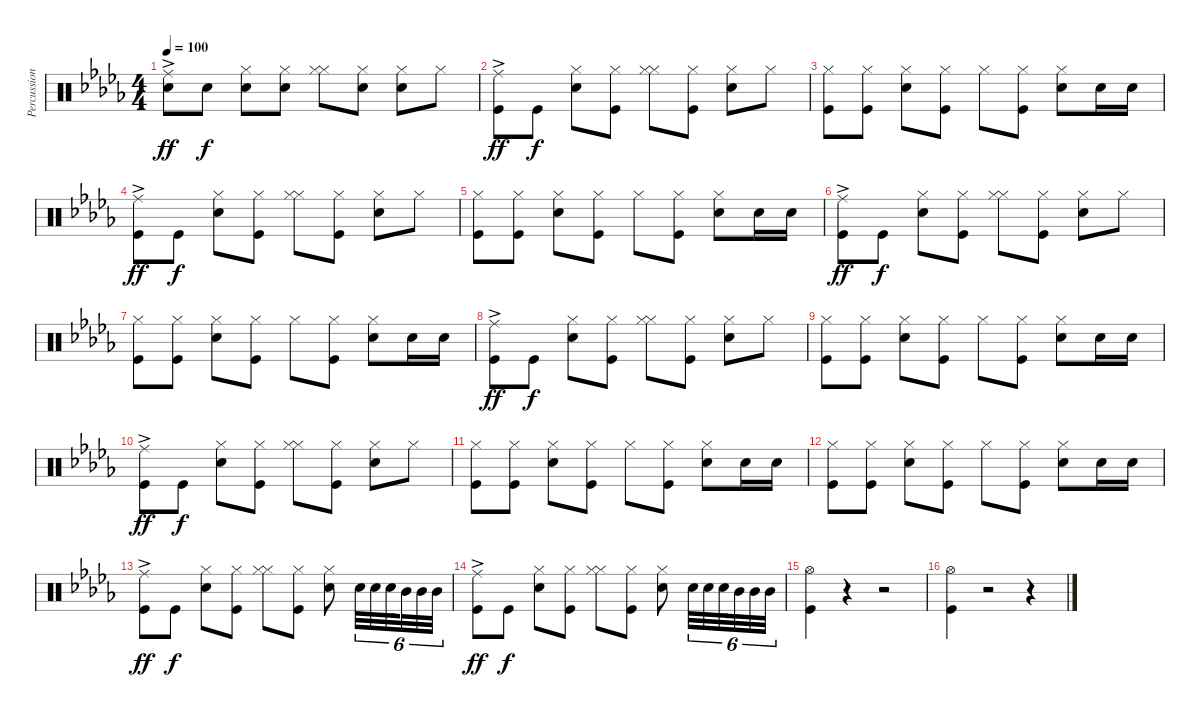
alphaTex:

\track ("Percussion( mike mamillin)" "Percussion") {instrument percussion}
\staff {score}
\articulation defaults
\ts (4 4)
\tempo 100
\clef neutral
\ks db
("Ride (middle)"{ac} "Electric Snare (hit)").8{dy ff} "Electric Snare (hit)".8{dy f} ("Hi-Hat (closed)" "Snare (hit) 2").8 ("Hi-Hat (closed)" "Electric Snare (hit)").8 ("Hi-Hat (closed)" "Hi-Hat (closed)").8 ("Hi-Hat (closed)" "Electric Snare (hit)").8 ("Hi-Hat (closed)" "Snare (hit) 2").8 "Hi-Hat (closed)".8 |
("Ride (middle)"{ac} "Kick (hit)").8{dy ff} "Kick (hit)".8{dy f} ("Hi-Hat (closed)" "Snare (hit) 2").8 ("Hi-Hat (closed)" "Kick (hit)").8 ("Hi-Hat (closed)" "Hi-Hat (closed)").8 ("Hi-Hat (closed)" "Kick (hit)").8 ("Hi-Hat (closed)" "Snare (hit) 2").8 "Hi-Hat (closed)".8 |
("Hi-Hat (closed)" "Kick (hit)").8 ("Hi-Hat (closed)" "Kick (hit)").8 ("Hi-Hat (closed)" "Snare (hit) 2").8 ("Hi-Hat (closed)" "Kick (hit)").8 "Hi-Hat (closed)".8 ("Hi-Hat (closed)" "Kick (hit)").8 ("Hi-Hat (closed)" "Snare (hit) 2").8 "Snare (hit) 2".16 "Snare (hit) 2".16 |
("Ride (middle)"{ac} "Kick (hit)").8{dy ff} "Kick (hit)".8{dy f} ("Hi-Hat (closed)" "Snare (hit) 2").8 ("Hi-Hat (closed)" "Kick (hit)").8 ("Hi-Hat (closed)" "Hi-Hat (closed)").8 ("Hi-Hat (closed)" "Kick (hit)").8 ("Hi-Hat (closed)" "Snare (hit) 2").8 "Hi-Hat (closed)".8 |
("Hi-Hat (closed)" "Kick (hit)").8 ("Hi-Hat (closed)" "Kick (hit)").8 ("Hi-Hat (closed)" "Snare (hit) 2").8 ("Hi-Hat (closed)" "Kick (hit)").8 "Hi-Hat (closed)".8 ("Hi-Hat (closed)" "Kick (hit)").8 ("Hi-Hat (closed)" "Snare (hit) 2").8 "Snare (hit) 2".16 "Snare (hit) 2".16 |
("Ride (middle)"{ac} "Kick (hit)").8{dy ff} "Kick (hit)".8{dy f} ("Hi-Hat (closed)" "Snare (hit) 2").8 ("Hi-Hat (closed)" "Kick (hit)").8 ("Hi-Hat (closed)" "Hi-Hat (closed)").8 ("Hi-Hat (closed)" "Kick (hit)").8 ("Hi-Hat (closed)" "Snare (hit) 2").8 "Hi-Hat (closed)".8 |
("Hi-Hat (closed)" "Kick (hit)").8 ("Hi-Hat (closed)" "Kick (hit)").8 ("Hi-Hat (closed)" "Snare (hit) 2").8 ("Hi-Hat (closed)" "Kick (hit)").8 "Hi-Hat (closed)".8 ("Hi-Hat (closed)" "Kick (hit)").8 ("Hi-Hat (closed)" "Snare (hit) 2").8 "Snare (hit) 2".16 "Snare (hit) 2".16 |
("Ride (middle)"{ac} "Kick (hit)").8{dy ff} "Kick (hit)".8{dy f} ("Hi-Hat (closed)" "Snare (hit) 2").8 ("Hi-Hat (closed)" "Kick (hit)").8 ("Hi-Hat (closed)" "Hi-Hat (closed)").8 ("Hi-Hat (closed)" "Kick (hit)").8 ("Hi-Hat (closed)" "Snare (hit) 2").8 "Hi-Hat (closed)".8 |
("Hi-Hat (closed)" "Kick (hit)").8 ("Hi-Hat (closed)" "Kick (hit)").8 ("Hi-Hat (closed)" "Snare (hit) 2").8 ("Hi-Hat (closed)" "Kick (hit)").8 "Hi-Hat (closed)".8 ("Hi-Hat (closed)" "Kick (hit)").8 ("Hi-Hat (closed)" "Snare (hit) 2").8 "Snare (hit) 2".16 "Snare (hit) 2".16 |
("Ride (middle)"{ac} "Kick (hit)").8{dy ff} "Kick (hit)".8{dy f} ("Hi-Hat (closed)" "Snare (hit) 2").8 ("Hi-Hat (closed)" "Kick (hit)").8 ("Hi-Hat (closed)" "Hi-Hat (closed)").8 ("Hi-Hat (closed)" "Kick (hit)").8 ("Hi-Hat (closed)" "Snare (hit) 2").8 "Hi-Hat (closed)".8 |
("Hi-Hat (closed)" "Kick (hit)").8 ("Hi-Hat (closed)" "Kick (hit)").8 ("Hi-Hat (closed)" "Snare (hit) 2").8 ("Hi-Hat (closed)" "Kick (hit)").8 "Hi-Hat (closed)".8 ("Hi-Hat (closed)" "Kick (hit)").8 ("Hi-Hat (closed)" "Snare (hit) 2").8 "Snare (hit) 2".16 "Snare (hit) 2".16 |
("Hi-Hat (closed)" "Kick (hit)").8 ("Hi-Hat (closed)" "Kick (hit)").8 ("Hi-Hat (closed)" "Snare (hit) 2").8 ("Hi-Hat (closed)" "Kick (hit)").8 "Hi-Hat (closed)".8 ("Hi-Hat (closed)" "Kick (hit)").8 ("Hi-Hat (closed)" "Snare (hit) 2").8 "Snare (hit) 2".16 "Snare (hit) 2".16 |
("Ride (middle)"{ac} "Kick (hit)").8{dy ff} "Kick (hit)".8{dy f} ("Hi-Hat (closed)" "Snare (hit) 2").8 ("Hi-Hat (closed)" "Kick (hit)").8 ("Hi-Hat (closed)" "Hi-Hat (closed)").8 ("Hi-Hat (closed)" "Kick (hit)").8 ("Hi-Hat (closed)" "Snare (hit) 2").8 "Snare (hit) 2".32{tu (6 4)} "Snare (hit) 2".32{tu (6 4)} "Snare (hit) 2".32{tu (6 4) beam splitsecondary} "Mid Tom (hit)".32{tu (6 4)} "Mid Tom (hit)".32{tu (6 4)} "Mid Tom (hit)".32{tu (6 4)} |
("Ride (middle)"{ac} "Kick (hit)").8{dy ff} "Kick (hit)".8{dy f} ("Hi-Hat (closed)" "Snare (hit) 2").8 ("Hi-Hat (closed)" "Kick (hit)").8 ("Hi-Hat (closed)" "Hi-Hat (closed)").8 ("Hi-Hat (closed)" "Kick (hit)").8 ("Hi-Hat (closed)" "Snare (hit) 2").8 "Snare (hit) 2".32{tu (6 4)} "Snare (hit) 2".32{tu (6 4)} "Snare (hit) 2".32{tu (6 4) beam splitsecondary} "Mid Tom (hit)".32{tu (6 4)} "Mid Tom (hit)".32{tu (6 4)} "Mid Tom (hit)".32{tu (6 4)} |
("Hi-Hat (open)" "Kick (hit)").4 r.4 r.2 |
("Hi-Hat (open)" "Kick (hit)").4 r.2 r.4
